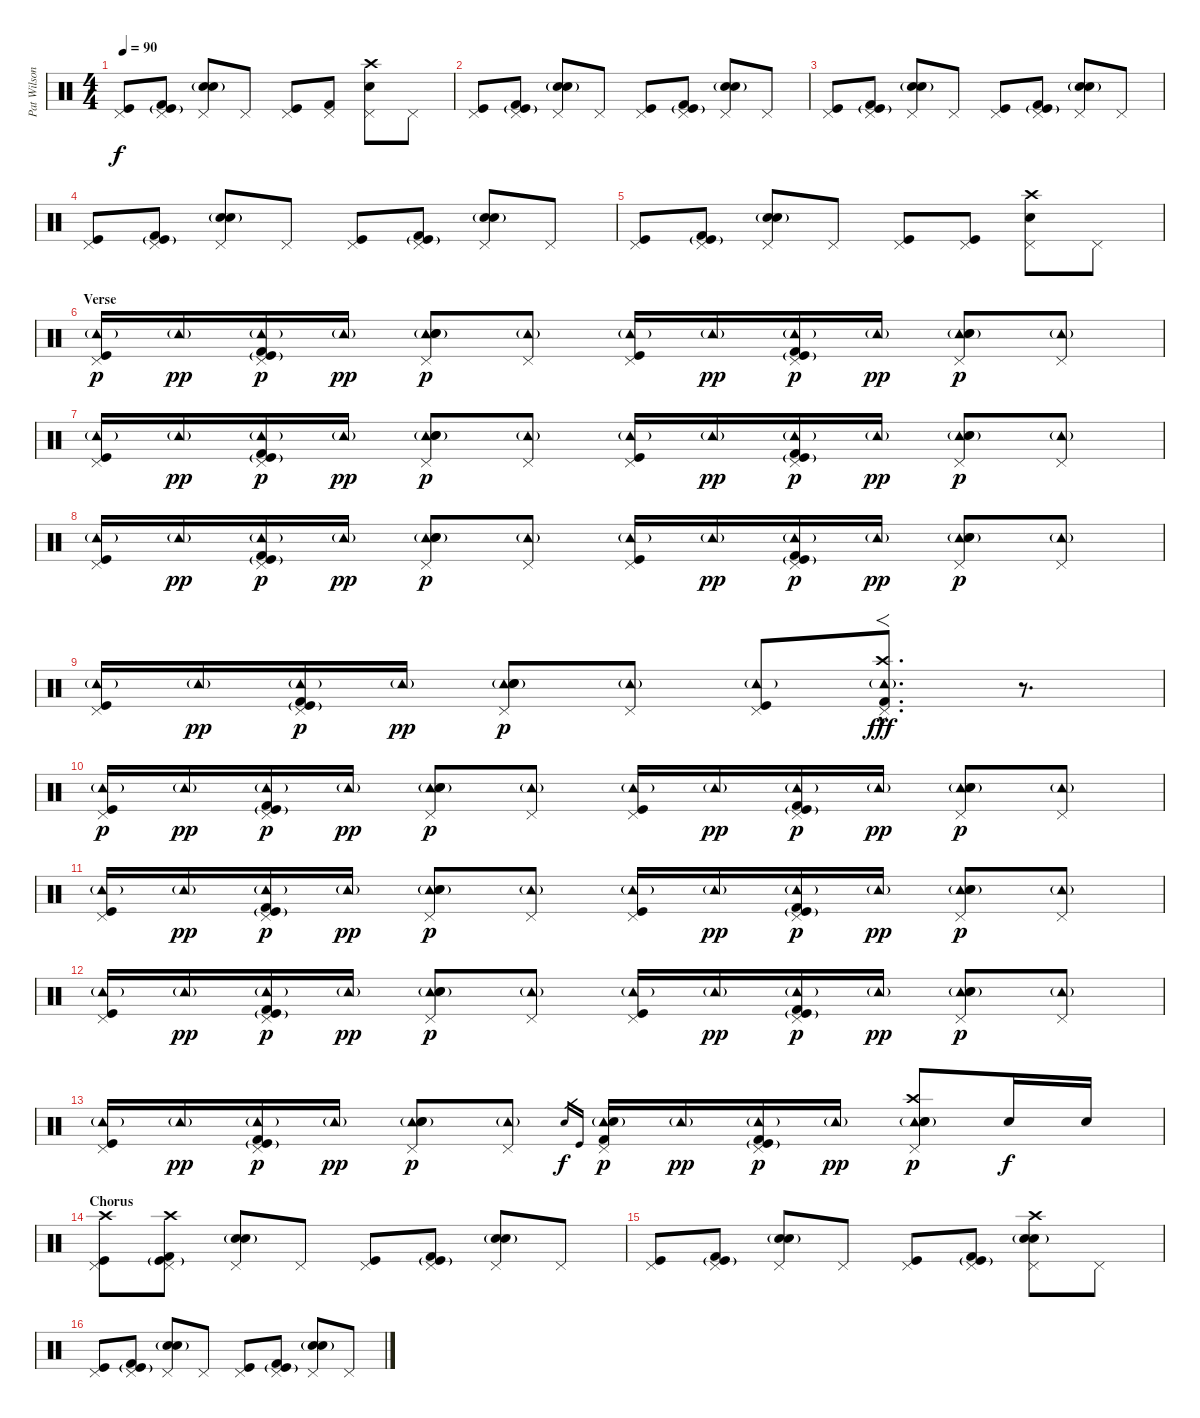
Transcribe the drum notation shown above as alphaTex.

\track ("Pat Wilson" "Pat Wilson") {instrument percussion}
\staff {score}
\articulation defaults
\ts (4 4)
\tempo 90
\clef neutral
\ks c
("Pedal Hi-Hat (hit)" "Kick (hit)").8{dy f} ("Pedal Hi-Hat (hit)" "Kick (hit)"{g} "Kick (hit) 2").8 ("Pedal Hi-Hat (hit)" "Hand Clap (hit)"{g} "Electric Snare (hit)").8 "Pedal Hi-Hat (hit)".8 ("Pedal Hi-Hat (hit)" "Kick (hit)").8 ("Pedal Hi-Hat (hit)" "Kick (hit) 2").8 ("Crash high (hit)" "Pedal Hi-Hat (hit)" "Electric Snare (hit)").8 "Pedal Hi-Hat (hit)".8 |
("Pedal Hi-Hat (hit)" "Kick (hit)").8 ("Pedal Hi-Hat (hit)" "Kick (hit)"{g} "Kick (hit) 2").8 ("Pedal Hi-Hat (hit)" "Hand Clap (hit)"{g} "Electric Snare (hit)").8 "Pedal Hi-Hat (hit)".8 ("Pedal Hi-Hat (hit)" "Kick (hit)").8 ("Pedal Hi-Hat (hit)" "Kick (hit)"{g} "Kick (hit) 2").8 ("Pedal Hi-Hat (hit)" "Hand Clap (hit)"{g} "Electric Snare (hit)").8 "Pedal Hi-Hat (hit)".8 |
("Pedal Hi-Hat (hit)" "Kick (hit)").8 ("Pedal Hi-Hat (hit)" "Kick (hit)"{g} "Kick (hit) 2").8 ("Pedal Hi-Hat (hit)" "Hand Clap (hit)"{g} "Electric Snare (hit)").8 "Pedal Hi-Hat (hit)".8 ("Pedal Hi-Hat (hit)" "Kick (hit)").8 ("Pedal Hi-Hat (hit)" "Kick (hit)"{g} "Kick (hit) 2").8 ("Pedal Hi-Hat (hit)" "Hand Clap (hit)"{g} "Electric Snare (hit)").8 "Pedal Hi-Hat (hit)".8 |
("Pedal Hi-Hat (hit)" "Kick (hit)").8 ("Pedal Hi-Hat (hit)" "Kick (hit)"{g} "Kick (hit) 2").8 ("Pedal Hi-Hat (hit)" "Hand Clap (hit)"{g} "Electric Snare (hit)").8 "Pedal Hi-Hat (hit)".8 ("Pedal Hi-Hat (hit)" "Kick (hit)").8 ("Pedal Hi-Hat (hit)" "Kick (hit)"{g} "Kick (hit) 2").8 ("Pedal Hi-Hat (hit)" "Hand Clap (hit)"{g} "Electric Snare (hit)").8 "Pedal Hi-Hat (hit)".8 |
("Pedal Hi-Hat (hit)" "Kick (hit)").8 ("Pedal Hi-Hat (hit)" "Kick (hit)"{g} "Kick (hit) 2").8 ("Pedal Hi-Hat (hit)" "Hand Clap (hit)"{g} "Electric Snare (hit)").8 "Pedal Hi-Hat (hit)".8 ("Pedal Hi-Hat (hit)" "Kick (hit)").8 ("Pedal Hi-Hat (hit)" "Kick (hit)").8 ("Crash high (hit)" "Pedal Hi-Hat (hit)" "Electric Snare (hit)").8 "Pedal Hi-Hat (hit)".8 |
\section ("" "Verse")
("Tambourine (hit)"{g} "Pedal Hi-Hat (hit)" "Kick (hit)").16{dy p} "Tambourine (hit)"{g}.16{dy pp} ("Tambourine (hit)"{g} "Pedal Hi-Hat (hit)" "Kick (hit)"{g} "Kick (hit) 2").16{dy p} "Tambourine (hit)"{g}.16{dy pp} ("Tambourine (hit)"{g} "Pedal Hi-Hat (hit)" "Hand Clap (hit)"{g} "Electric Snare (hit)").8{dy p} ("Tambourine (hit)"{g} "Pedal Hi-Hat (hit)").8 ("Tambourine (hit)"{g} "Pedal Hi-Hat (hit)" "Kick (hit)").16 "Tambourine (hit)"{g}.16{dy pp} ("Tambourine (hit)"{g} "Pedal Hi-Hat (hit)" "Kick (hit)"{g} "Kick (hit) 2").16{dy p} "Tambourine (hit)"{g}.16{dy pp} ("Tambourine (hit)"{g} "Pedal Hi-Hat (hit)" "Hand Clap (hit)"{g} "Electric Snare (hit)").8{dy p} ("Tambourine (hit)"{g} "Pedal Hi-Hat (hit)").8 |
("Tambourine (hit)"{g} "Pedal Hi-Hat (hit)" "Kick (hit)").16 "Tambourine (hit)"{g}.16{dy pp} ("Tambourine (hit)"{g} "Pedal Hi-Hat (hit)" "Kick (hit)"{g} "Kick (hit) 2").16{dy p} "Tambourine (hit)"{g}.16{dy pp} ("Tambourine (hit)"{g} "Pedal Hi-Hat (hit)" "Hand Clap (hit)"{g} "Electric Snare (hit)").8{dy p} ("Tambourine (hit)"{g} "Pedal Hi-Hat (hit)").8 ("Tambourine (hit)"{g} "Pedal Hi-Hat (hit)" "Kick (hit)").16 "Tambourine (hit)"{g}.16{dy pp} ("Tambourine (hit)"{g} "Pedal Hi-Hat (hit)" "Kick (hit)"{g} "Kick (hit) 2").16{dy p} "Tambourine (hit)"{g}.16{dy pp} ("Tambourine (hit)"{g} "Pedal Hi-Hat (hit)" "Hand Clap (hit)"{g} "Electric Snare (hit)").8{dy p} ("Tambourine (hit)"{g} "Pedal Hi-Hat (hit)").8 |
("Tambourine (hit)"{g} "Pedal Hi-Hat (hit)" "Kick (hit)").16 "Tambourine (hit)"{g}.16{dy pp} ("Tambourine (hit)"{g} "Pedal Hi-Hat (hit)" "Kick (hit)"{g} "Kick (hit) 2").16{dy p} "Tambourine (hit)"{g}.16{dy pp} ("Tambourine (hit)"{g} "Pedal Hi-Hat (hit)" "Hand Clap (hit)"{g} "Electric Snare (hit)").8{dy p} ("Tambourine (hit)"{g} "Pedal Hi-Hat (hit)").8 ("Tambourine (hit)"{g} "Pedal Hi-Hat (hit)" "Kick (hit)").16 "Tambourine (hit)"{g}.16{dy pp} ("Tambourine (hit)"{g} "Pedal Hi-Hat (hit)" "Kick (hit)"{g} "Kick (hit) 2").16{dy p} "Tambourine (hit)"{g}.16{dy pp} ("Tambourine (hit)"{g} "Pedal Hi-Hat (hit)" "Hand Clap (hit)"{g} "Electric Snare (hit)").8{dy p} ("Tambourine (hit)"{g} "Pedal Hi-Hat (hit)").8 |
("Tambourine (hit)"{g} "Pedal Hi-Hat (hit)" "Kick (hit)").16 "Tambourine (hit)"{g}.16{dy pp} ("Tambourine (hit)"{g} "Pedal Hi-Hat (hit)" "Kick (hit)"{g} "Kick (hit) 2").16{dy p} "Tambourine (hit)"{g}.16{dy pp} ("Tambourine (hit)"{g} "Pedal Hi-Hat (hit)" "Hand Clap (hit)"{g} "Electric Snare (hit)").8{dy p} ("Tambourine (hit)"{g} "Pedal Hi-Hat (hit)").8 ("Tambourine (hit)"{g} "Pedal Hi-Hat (hit)" "Kick (hit)").8 ("Tambourine (hit)"{g hac} "Crash high (hit)"{hac} "Pedal Hi-Hat (hit)"{hac} "Kick (hit) 2"{hac}).8{f d dy fff} r.8{d} |
("Tambourine (hit)"{g} "Pedal Hi-Hat (hit)" "Kick (hit)").16{dy p} "Tambourine (hit)"{g}.16{dy pp} ("Tambourine (hit)"{g} "Pedal Hi-Hat (hit)" "Kick (hit)"{g} "Kick (hit) 2").16{dy p} "Tambourine (hit)"{g}.16{dy pp} ("Tambourine (hit)"{g} "Pedal Hi-Hat (hit)" "Hand Clap (hit)"{g} "Electric Snare (hit)").8{dy p} ("Tambourine (hit)"{g} "Pedal Hi-Hat (hit)").8 ("Tambourine (hit)"{g} "Pedal Hi-Hat (hit)" "Kick (hit)").16 "Tambourine (hit)"{g}.16{dy pp} ("Tambourine (hit)"{g} "Pedal Hi-Hat (hit)" "Kick (hit)"{g} "Kick (hit) 2").16{dy p} "Tambourine (hit)"{g}.16{dy pp} ("Tambourine (hit)"{g} "Pedal Hi-Hat (hit)" "Hand Clap (hit)"{g} "Electric Snare (hit)").8{dy p} ("Tambourine (hit)"{g} "Pedal Hi-Hat (hit)").8 |
("Tambourine (hit)"{g} "Pedal Hi-Hat (hit)" "Kick (hit)").16 "Tambourine (hit)"{g}.16{dy pp} ("Tambourine (hit)"{g} "Pedal Hi-Hat (hit)" "Kick (hit)"{g} "Kick (hit) 2").16{dy p} "Tambourine (hit)"{g}.16{dy pp} ("Tambourine (hit)"{g} "Pedal Hi-Hat (hit)" "Hand Clap (hit)"{g} "Electric Snare (hit)").8{dy p} ("Tambourine (hit)"{g} "Pedal Hi-Hat (hit)").8 ("Tambourine (hit)"{g} "Pedal Hi-Hat (hit)" "Kick (hit)").16 "Tambourine (hit)"{g}.16{dy pp} ("Tambourine (hit)"{g} "Pedal Hi-Hat (hit)" "Kick (hit)"{g} "Kick (hit) 2").16{dy p} "Tambourine (hit)"{g}.16{dy pp} ("Tambourine (hit)"{g} "Pedal Hi-Hat (hit)" "Hand Clap (hit)"{g} "Electric Snare (hit)").8{dy p} ("Tambourine (hit)"{g} "Pedal Hi-Hat (hit)").8 |
("Tambourine (hit)"{g} "Pedal Hi-Hat (hit)" "Kick (hit)").16 "Tambourine (hit)"{g}.16{dy pp} ("Tambourine (hit)"{g} "Pedal Hi-Hat (hit)" "Kick (hit)"{g} "Kick (hit) 2").16{dy p} "Tambourine (hit)"{g}.16{dy pp} ("Tambourine (hit)"{g} "Pedal Hi-Hat (hit)" "Hand Clap (hit)"{g} "Electric Snare (hit)").8{dy p} ("Tambourine (hit)"{g} "Pedal Hi-Hat (hit)").8 ("Tambourine (hit)"{g} "Pedal Hi-Hat (hit)" "Kick (hit)").16 "Tambourine (hit)"{g}.16{dy pp} ("Tambourine (hit)"{g} "Pedal Hi-Hat (hit)" "Kick (hit)"{g} "Kick (hit) 2").16{dy p} "Tambourine (hit)"{g}.16{dy pp} ("Tambourine (hit)"{g} "Pedal Hi-Hat (hit)" "Hand Clap (hit)"{g} "Electric Snare (hit)").8{dy p} ("Tambourine (hit)"{g} "Pedal Hi-Hat (hit)").8 |
("Tambourine (hit)"{g} "Pedal Hi-Hat (hit)" "Kick (hit)").16 "Tambourine (hit)"{g}.16{dy pp} ("Tambourine (hit)"{g} "Pedal Hi-Hat (hit)" "Kick (hit)"{g} "Kick (hit) 2").16{dy p} "Tambourine (hit)"{g}.16{dy pp} ("Tambourine (hit)"{g} "Pedal Hi-Hat (hit)" "Hand Clap (hit)"{g} "Electric Snare (hit)").8{dy p} ("Tambourine (hit)"{g} "Pedal Hi-Hat (hit)").8 "Electric Snare (hit)".16{gr dy f} "Kick (hit)".16{gr} ("Tambourine (hit)"{g} "Pedal Hi-Hat (hit)" "Snare (hit) 2" "Kick (hit) 2").16{dy p} "Tambourine (hit)"{g}.16{dy pp} ("Tambourine (hit)"{g} "Pedal Hi-Hat (hit)" "Kick (hit)"{g} "Kick (hit) 2").16{dy p} "Tambourine (hit)"{g}.16{dy pp} ("Tambourine (hit)"{g} "Pedal Hi-Hat (hit)" "Crash high (hit)" "Hand Clap (hit)"{g} "Electric Snare (hit)").8{dy p} "Electric Snare (hit)".16{dy f} "Electric Snare (hit)".16 |
\section ("" "Chorus")
("Crash high (hit)" "Pedal Hi-Hat (hit)" "Kick (hit)").8 ("Crash high (hit)" "Pedal Hi-Hat (hit)" "Kick (hit)"{g} "Kick (hit) 2").8 ("Pedal Hi-Hat (hit)" "Hand Clap (hit)"{g} "Electric Snare (hit)").8 "Pedal Hi-Hat (hit)".8 ("Pedal Hi-Hat (hit)" "Kick (hit)").8 ("Pedal Hi-Hat (hit)" "Kick (hit)"{g} "Kick (hit) 2").8 ("Pedal Hi-Hat (hit)" "Hand Clap (hit)"{g} "Electric Snare (hit)").8 "Pedal Hi-Hat (hit)".8 |
("Pedal Hi-Hat (hit)" "Kick (hit)").8 ("Pedal Hi-Hat (hit)" "Kick (hit)"{g} "Kick (hit) 2").8 ("Pedal Hi-Hat (hit)" "Hand Clap (hit)"{g} "Electric Snare (hit)").8 "Pedal Hi-Hat (hit)".8 ("Pedal Hi-Hat (hit)" "Kick (hit)").8 ("Pedal Hi-Hat (hit)" "Kick (hit)"{g} "Kick (hit) 2").8 ("Crash high (hit)" "Pedal Hi-Hat (hit)" "Hand Clap (hit)"{g} "Electric Snare (hit)").8 "Pedal Hi-Hat (hit)".8 |
("Pedal Hi-Hat (hit)" "Kick (hit)").8 ("Pedal Hi-Hat (hit)" "Kick (hit)"{g} "Kick (hit) 2").8 ("Pedal Hi-Hat (hit)" "Hand Clap (hit)"{g} "Electric Snare (hit)").8 "Pedal Hi-Hat (hit)".8 ("Pedal Hi-Hat (hit)" "Kick (hit)").8 ("Pedal Hi-Hat (hit)" "Kick (hit)"{g} "Kick (hit) 2").8 ("Pedal Hi-Hat (hit)" "Hand Clap (hit)"{g} "Electric Snare (hit)").8 "Pedal Hi-Hat (hit)".8
